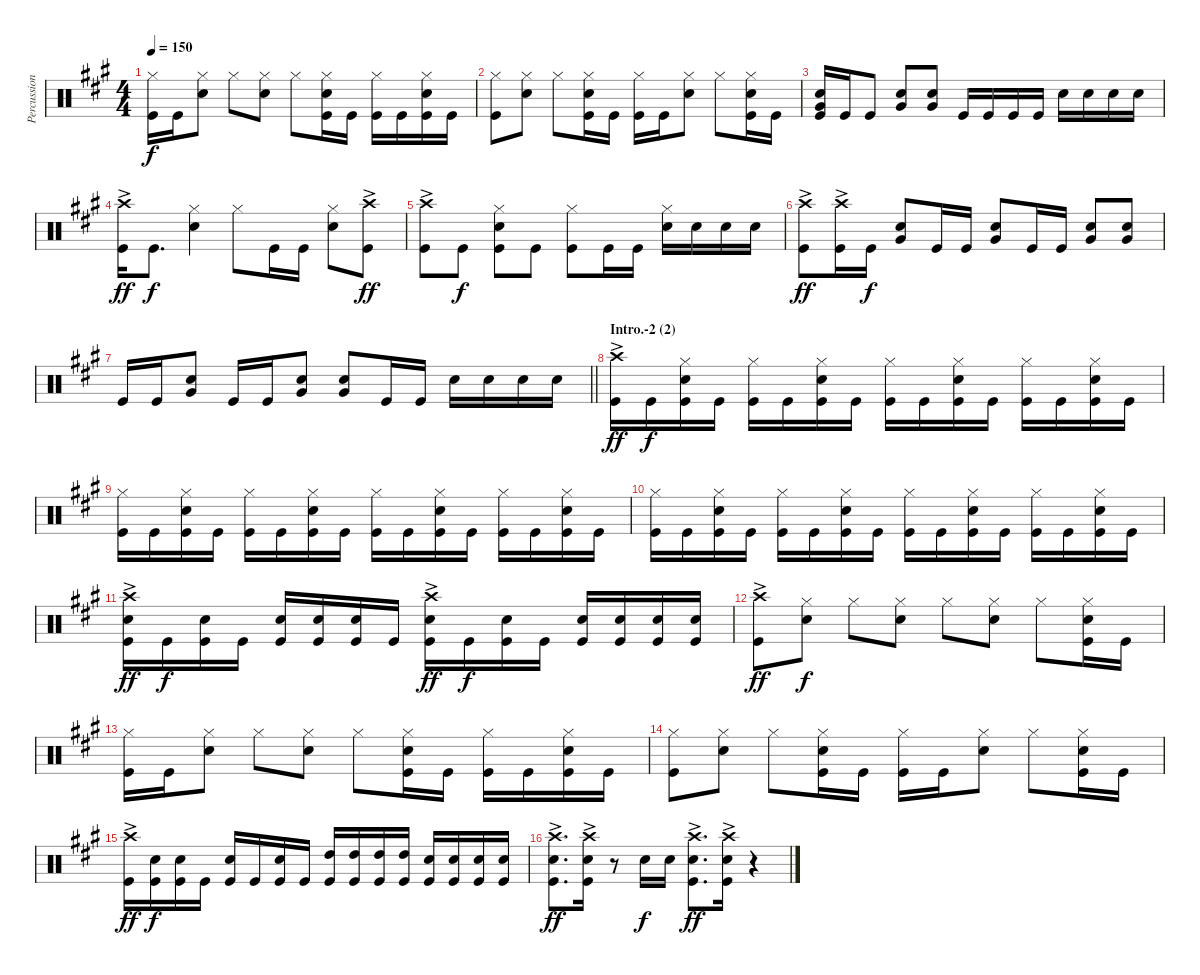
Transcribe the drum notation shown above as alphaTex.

\track ("Percussion" "Percussion") {instrument percussion}
\staff {score}
\articulation defaults
\ts (4 4)
\tempo 150
\clef neutral
\ks a
("Hi-Hat (closed)" "Kick (hit)").16{dy f} "Kick (hit)".16 ("Hi-Hat (closed)" "Snare (hit) 2").8 "Hi-Hat (closed)".8 ("Hi-Hat (closed)" "Snare (hit) 2").8 "Hi-Hat (closed)".8 ("Hi-Hat (closed)" "Snare (hit) 2" "Kick (hit)").16 "Kick (hit)".16 ("Hi-Hat (closed)" "Kick (hit)").16 "Kick (hit)".16 ("Kick (hit)" "Hi-Hat (closed)" "Snare (hit) 2").16 "Kick (hit)".16 |
("Hi-Hat (closed)" "Kick (hit)").8 ("Hi-Hat (closed)" "Snare (hit) 2").8 "Hi-Hat (closed)".8 ("Hi-Hat (closed)" "Snare (hit) 2" "Kick (hit)").16 "Kick (hit)".16 ("Kick (hit)" "Hi-Hat (closed)").16 "Kick (hit)".16 ("Hi-Hat (closed)" "Snare (hit) 2").8 "Hi-Hat (closed)".8 ("Hi-Hat (closed)" "Snare (hit) 2" "Kick (hit)").16 "Kick (hit)".16 |
("Snare (hit) 2" "Very Low Tom (hit)" "Kick (hit)").16 "Kick (hit)".16 "Kick (hit)".8 ("Snare (hit) 2" "Very Low Tom (hit)").8 ("Very Low Tom (hit)" "Snare (hit) 2").8 "Kick (hit)".16 "Kick (hit)".16 "Kick (hit)".16 "Kick (hit)".16 "Snare (hit) 2".16 "Snare (hit) 2".16 "Snare (hit) 2".16 "Snare (hit) 2".16 |
("Crash high (hit)"{ac} "Kick (hit)").16{dy ff} "Kick (hit)".8{d dy f} ("Hi-Hat (closed)" "Snare (hit) 2").4 "Hi-Hat (closed)".8 "Kick (hit)".16 "Kick (hit)".16 ("Snare (hit) 2" "Hi-Hat (closed)").8 ("Crash high (hit)"{ac} "Kick (hit)").8{dy ff} |
("Crash high (hit)"{ac} "Kick (hit)").8 "Kick (hit)".8{dy f} ("Hi-Hat (closed)" "Snare (hit) 2" "Kick (hit)").8 "Kick (hit)".8 ("Hi-Hat (closed)" "Kick (hit)").8 "Kick (hit)".16 "Kick (hit)".16 ("Hi-Hat (closed)" "Snare (hit) 2").16 "Snare (hit) 2".16 "Snare (hit) 2".16 "Snare (hit) 2".16 |
("Crash high (hit)"{ac} "Kick (hit)").8{dy ff} ("Crash high (hit)"{ac} "Kick (hit)").16 "Kick (hit)".16{dy f} ("Snare (hit) 2" "Very Low Tom (hit)").8 "Kick (hit)".16 "Kick (hit)".16 ("Snare (hit) 2" "Very Low Tom (hit)").8 "Kick (hit)".16 "Kick (hit)".16 ("Snare (hit) 2" "Very Low Tom (hit)").8 ("Snare (hit) 2" "Very Low Tom (hit)").8 |
\barLineRight lightlight "Kick (hit)".16 "Kick (hit)".16
("Snare (hit) 2" "Very Low Tom (hit)").8 "Kick (hit)".16 "Kick (hit)".16 ("Snare (hit) 2" "Very Low Tom (hit)").8 ("Snare (hit) 2" "Very Low Tom (hit)").8 "Kick (hit)".16 "Kick (hit)".16 "Snare (hit) 2".16 "Snare (hit) 2".16 "Snare (hit) 2".16 "Snare (hit) 2".16 |
\section ("" "Intro.-2 (2)")
("Crash high (hit)"{ac} "Kick (hit)").16{dy ff} "Kick (hit)".16{dy f} ("Hi-Hat (closed)" "Snare (hit) 2" "Kick (hit)").16 "Kick (hit)".16 ("Hi-Hat (closed)" "Kick (hit)").16 "Kick (hit)".16 ("Kick (hit)" "Hi-Hat (closed)" "Snare (hit) 2").16 "Kick (hit)".16 ("Kick (hit)" "Hi-Hat (closed)").16 "Kick (hit)".16 ("Hi-Hat (closed)" "Kick (hit)" "Snare (hit) 2").16 "Kick (hit)".16 ("Hi-Hat (closed)" "Kick (hit)").16 "Kick (hit)".16 ("Hi-Hat (closed)" "Kick (hit)" "Snare (hit) 2").16 "Kick (hit)".16 |
("Hi-Hat (closed)" "Kick (hit)").16 "Kick (hit)".16 ("Hi-Hat (closed)" "Snare (hit) 2" "Kick (hit)").16 "Kick (hit)".16 ("Hi-Hat (closed)" "Kick (hit)").16 "Kick (hit)".16 ("Kick (hit)" "Hi-Hat (closed)" "Snare (hit) 2").16 "Kick (hit)".16 ("Kick (hit)" "Hi-Hat (closed)").16 "Kick (hit)".16 ("Hi-Hat (closed)" "Kick (hit)" "Snare (hit) 2").16 "Kick (hit)".16 ("Hi-Hat (closed)" "Kick (hit)").16 "Kick (hit)".16 ("Hi-Hat (closed)" "Kick (hit)" "Snare (hit) 2").16 "Kick (hit)".16 |
("Hi-Hat (closed)" "Kick (hit)").16 "Kick (hit)".16 ("Hi-Hat (closed)" "Snare (hit) 2" "Kick (hit)").16 "Kick (hit)".16 ("Hi-Hat (closed)" "Kick (hit)").16 "Kick (hit)".16 ("Kick (hit)" "Hi-Hat (closed)" "Snare (hit) 2").16 "Kick (hit)".16 ("Kick (hit)" "Hi-Hat (closed)").16 "Kick (hit)".16 ("Hi-Hat (closed)" "Kick (hit)" "Snare (hit) 2").16 "Kick (hit)".16 ("Hi-Hat (closed)" "Kick (hit)").16 "Kick (hit)".16 ("Hi-Hat (closed)" "Kick (hit)" "Snare (hit) 2").16 "Kick (hit)".16 |
("Crash high (hit)"{ac} "Snare (hit) 2" "Kick (hit)").16{dy ff} "Kick (hit)".16{dy f} ("Snare (hit) 2" "Kick (hit)").16 "Kick (hit)".16 ("Snare (hit) 2" "Kick (hit)").16 ("Snare (hit) 2" "Kick (hit)").16 ("Kick (hit)" "Snare (hit) 2").16 "Kick (hit)".16 ("Kick (hit)" "Crash high (hit)"{ac} "Snare (hit) 2").16{dy ff} "Kick (hit)".16{dy f} ("Kick (hit)" "Snare (hit) 2").16 "Kick (hit)".16 ("Kick (hit)" "Snare (hit) 2").16 ("Kick (hit)" "Snare (hit) 2").16 ("Kick (hit)" "Snare (hit) 2").16 ("Kick (hit)" "Snare (hit) 2").16 |
("Crash high (hit)"{ac} "Kick (hit)").8{dy ff} ("Hi-Hat (closed)" "Snare (hit) 2").8{dy f} "Hi-Hat (closed)".8 ("Hi-Hat (closed)" "Snare (hit) 2").8 "Hi-Hat (closed)".8 ("Hi-Hat (closed)" "Snare (hit) 2").8 "Hi-Hat (closed)".8 ("Hi-Hat (closed)" "Snare (hit) 2" "Kick (hit)").16 "Kick (hit)".16 |
("Kick (hit)" "Hi-Hat (closed)").16 "Kick (hit)".16 ("Hi-Hat (closed)" "Snare (hit) 2").8 "Hi-Hat (closed)".8 ("Hi-Hat (closed)" "Snare (hit) 2").8 "Hi-Hat (closed)".8 ("Hi-Hat (closed)" "Snare (hit) 2" "Kick (hit)").16 "Kick (hit)".16 ("Kick (hit)" "Hi-Hat (closed)").16 "Kick (hit)".16 ("Kick (hit)" "Hi-Hat (closed)" "Snare (hit) 2").16 "Kick (hit)".16 |
("Kick (hit)" "Hi-Hat (closed)").8 ("Hi-Hat (closed)" "Snare (hit) 2").8 "Hi-Hat (closed)".8 ("Hi-Hat (closed)" "Snare (hit) 2" "Kick (hit)").16 "Kick (hit)".16 ("Kick (hit)" "Hi-Hat (closed)").16 "Kick (hit)".16 ("Hi-Hat (closed)" "Snare (hit) 2").8 "Hi-Hat (closed)".8 ("Hi-Hat (closed)" "Snare (hit) 2" "Kick (hit)").16 "Kick (hit)".16 |
("Crash high (hit)"{ac} "Kick (hit)").16{dy ff} ("Kick (hit)" "Snare (hit) 2").16{dy f} ("Snare (hit) 2" "Kick (hit)").16 "Kick (hit)".16 ("Kick (hit)" "Snare (hit) 2").16 "Kick (hit)".16 ("Kick (hit)" "Snare (hit) 2").16 "Kick (hit)".16 ("Kick (hit)" "High Tom (hit)").16 ("High Tom (hit)" "Kick (hit)").16 ("Kick (hit)" "High Tom (hit)").16 ("High Tom (hit)" "Kick (hit)").16 ("Kick (hit)" "Snare (hit) 2").16 ("Snare (hit) 2" "Kick (hit)").16 ("Kick (hit)" "Snare (hit) 2").16 ("Snare (hit) 2" "Kick (hit)").16 |
("Crash high (hit)"{ac} "Snare (hit) 2" "Kick (hit)").8{d dy ff} ("Crash high (hit)"{ac} "Snare (hit) 2" "Kick (hit)").16 r.8 "Snare (hit) 2".16{dy f} "Snare (hit) 2".16 ("Crash high (hit)"{ac} "Snare (hit) 2" "Kick (hit)").8{d dy ff} ("Crash high (hit)"{ac} "Snare (hit) 2" "Kick (hit)").16 r.4
